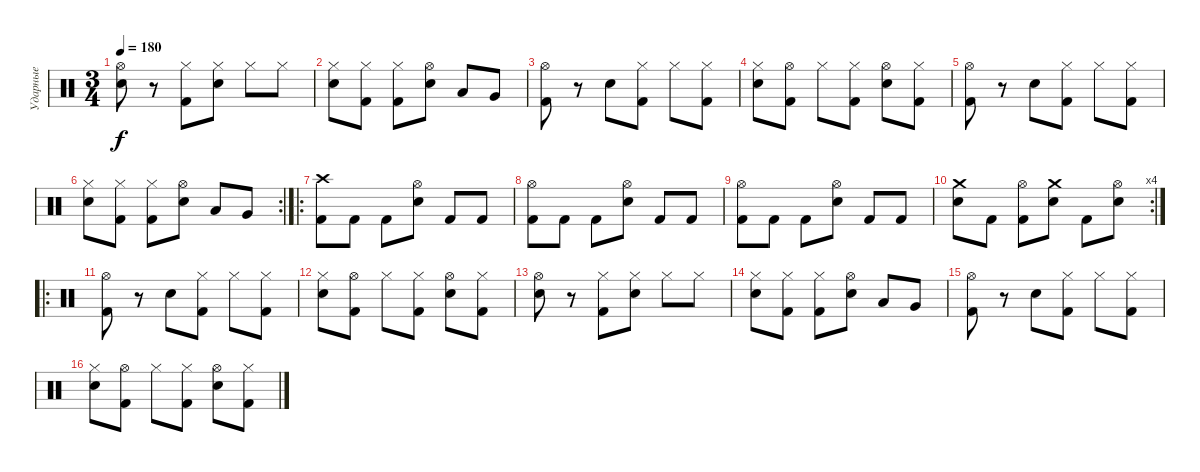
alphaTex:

\track ("Ударные" "Ударные") {instrument percussion}
\staff {score}
\articulation defaults
\ts (3 4)
\tempo 180
\clef neutral
\ks c
("Hi-Hat (open)" "Electric Snare (hit)").8{dy f} r.8 ("Hi-Hat (closed)" "Kick (hit) 2").8 ("Hi-Hat (closed)" "Electric Snare (hit)").8 "Hi-Hat (closed)".8 "Hi-Hat (closed)".8 |
("Hi-Hat (closed)" "Electric Snare (hit)").8 ("Hi-Hat (closed)" "Kick (hit) 2").8 ("Hi-Hat (closed)" "Kick (hit) 2").8 ("Hi-Hat (open)" "Electric Snare (hit)").8 "Low Tom (hit)".8 "Very Low Tom (hit)".8 |
("Hi-Hat (open)" "Kick (hit) 2").8 r.8 "Electric Snare (hit)".8 ("Hi-Hat (closed)" "Kick (hit) 2").8 "Hi-Hat (closed)".8 ("Hi-Hat (closed)" "Kick (hit) 2").8 |
("Hi-Hat (closed)" "Electric Snare (hit)").8 ("Hi-Hat (open)" "Kick (hit) 2").8 "Hi-Hat (closed)".8 ("Hi-Hat (closed)" "Kick (hit) 2").8 ("Hi-Hat (open)" "Electric Snare (hit)").8 ("Hi-Hat (closed)" "Kick (hit) 2").8 |
("Hi-Hat (open)" "Kick (hit) 2").8 r.8 "Electric Snare (hit)".8 ("Hi-Hat (closed)" "Kick (hit) 2").8 "Hi-Hat (closed)".8 ("Hi-Hat (closed)" "Kick (hit) 2").8 |
\rc 2
("Hi-Hat (closed)" "Electric Snare (hit)").8 ("Hi-Hat (closed)" "Kick (hit) 2").8 ("Hi-Hat (closed)" "Kick (hit) 2").8 ("Hi-Hat (open)" "Electric Snare (hit)").8 "Low Tom (hit)".8 "Very Low Tom (hit)".8 |
\ro
("Crash high (hit)" "Kick (hit) 2").8 "Kick (hit) 2".8 "Kick (hit) 2".8 ("Hi-Hat (open)" "Electric Snare (hit)").8 "Kick (hit) 2".8 "Kick (hit) 2".8 |
("Hi-Hat (open)" "Kick (hit) 2").8 "Kick (hit) 2".8 "Kick (hit) 2".8 ("Hi-Hat (open)" "Electric Snare (hit)").8 "Kick (hit) 2".8 "Kick (hit) 2".8 |
("Hi-Hat (open)" "Kick (hit) 2").8 "Kick (hit) 2".8 "Kick (hit) 2".8 ("Hi-Hat (open)" "Electric Snare (hit)").8 "Kick (hit) 2".8 "Kick (hit) 2".8 |
\rc 4
("Crash medium (hit)" "Electric Snare (hit)").8 "Kick (hit) 2".8 ("Hi-Hat (open)" "Kick (hit) 2").8 ("Crash medium (hit)" "Electric Snare (hit)").8 "Kick (hit) 2".8 ("Hi-Hat (open)" "Electric Snare (hit)").8 |
\ro
("Hi-Hat (open)" "Kick (hit) 2").8 r.8 "Electric Snare (hit)".8 ("Hi-Hat (closed)" "Kick (hit) 2").8 "Hi-Hat (closed)".8 ("Hi-Hat (closed)" "Kick (hit) 2").8 |
("Hi-Hat (closed)" "Electric Snare (hit)").8 ("Hi-Hat (open)" "Kick (hit) 2").8 "Hi-Hat (closed)".8 ("Hi-Hat (closed)" "Kick (hit) 2").8 ("Hi-Hat (open)" "Electric Snare (hit)").8 ("Hi-Hat (closed)" "Kick (hit) 2").8 |
("Hi-Hat (open)" "Electric Snare (hit)").8 r.8 ("Hi-Hat (closed)" "Kick (hit) 2").8 ("Hi-Hat (closed)" "Electric Snare (hit)").8 "Hi-Hat (closed)".8 "Hi-Hat (closed)".8 |
("Hi-Hat (closed)" "Electric Snare (hit)").8 ("Hi-Hat (closed)" "Kick (hit) 2").8 ("Hi-Hat (closed)" "Kick (hit) 2").8 ("Hi-Hat (open)" "Electric Snare (hit)").8 "Low Tom (hit)".8 "Very Low Tom (hit)".8 |
("Hi-Hat (open)" "Kick (hit) 2").8 r.8 "Electric Snare (hit)".8 ("Hi-Hat (closed)" "Kick (hit) 2").8 "Hi-Hat (closed)".8 ("Hi-Hat (closed)" "Kick (hit) 2").8 |
("Hi-Hat (closed)" "Electric Snare (hit)").8 ("Hi-Hat (open)" "Kick (hit) 2").8 "Hi-Hat (closed)".8 ("Hi-Hat (closed)" "Kick (hit) 2").8 ("Hi-Hat (open)" "Electric Snare (hit)").8 ("Hi-Hat (closed)" "Kick (hit) 2").8
